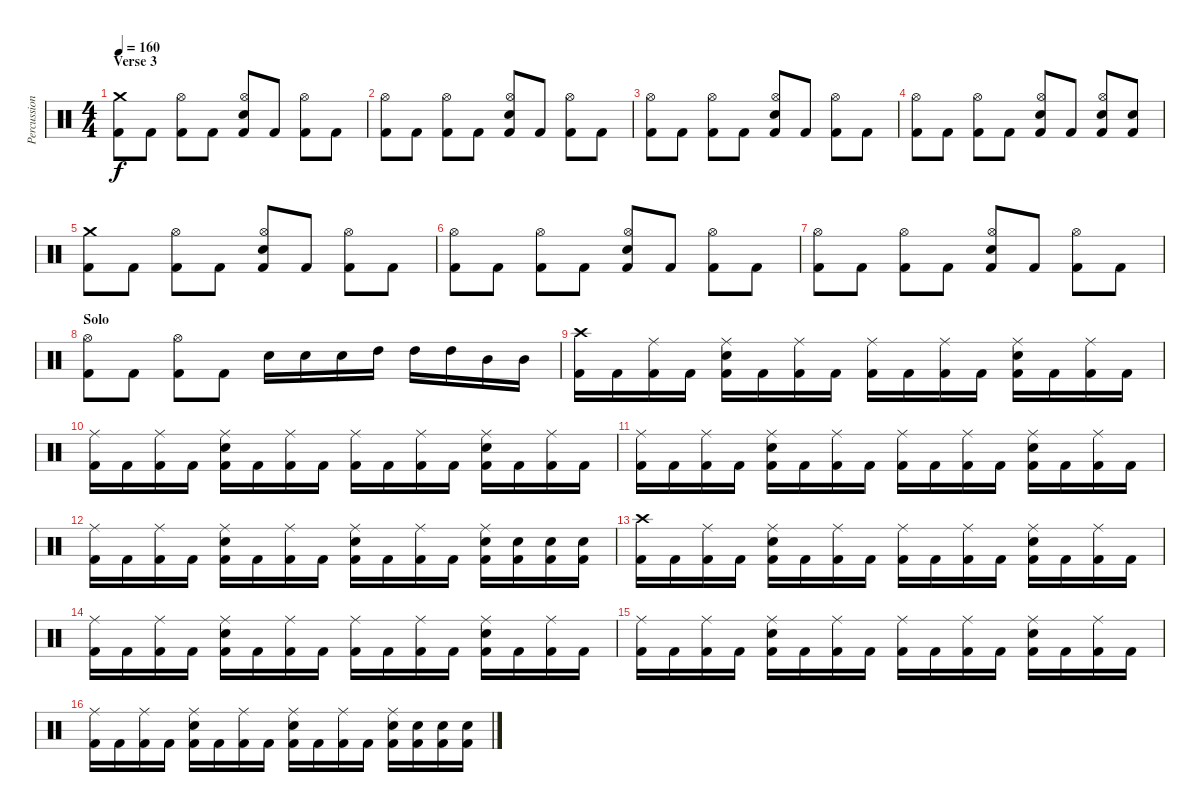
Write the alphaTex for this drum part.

\track ("Percussions" "Percussion") {instrument percussion}
\staff {score}
\articulation defaults
\ts (4 4)
\section ("" "Verse 3")
\tempo 160
\clef neutral
\ks c
("Crash medium (hit)" "Kick (hit) 2").8{dy f} "Kick (hit) 2".8 ("Hi-Hat (open)" "Kick (hit) 2").8 "Kick (hit) 2".8 ("Hi-Hat (open)" "Electric Snare (hit)" "Kick (hit) 2").8 "Kick (hit) 2".8 ("Hi-Hat (open)" "Kick (hit) 2").8 "Kick (hit) 2".8 |
("Hi-Hat (open)" "Kick (hit) 2").8 "Kick (hit) 2".8 ("Hi-Hat (open)" "Kick (hit) 2").8 "Kick (hit) 2".8 ("Hi-Hat (open)" "Electric Snare (hit)" "Kick (hit) 2").8 "Kick (hit) 2".8 ("Hi-Hat (open)" "Kick (hit) 2").8 "Kick (hit) 2".8 |
("Hi-Hat (open)" "Kick (hit) 2").8 "Kick (hit) 2".8 ("Hi-Hat (open)" "Kick (hit) 2").8 "Kick (hit) 2".8 ("Hi-Hat (open)" "Electric Snare (hit)" "Kick (hit) 2").8 "Kick (hit) 2".8 ("Hi-Hat (open)" "Kick (hit) 2").8 "Kick (hit) 2".8 |
("Hi-Hat (open)" "Kick (hit) 2").8 "Kick (hit) 2".8 ("Hi-Hat (open)" "Kick (hit) 2").8 "Kick (hit) 2".8 ("Hi-Hat (open)" "Electric Snare (hit)" "Kick (hit) 2").8 "Kick (hit) 2".8 ("Hi-Hat (open)" "Electric Snare (hit)" "Kick (hit) 2").8 ("Electric Snare (hit)" "Kick (hit) 2").8 |
("Crash medium (hit)" "Kick (hit) 2").8 "Kick (hit) 2".8 ("Hi-Hat (open)" "Kick (hit) 2").8 "Kick (hit) 2".8 ("Hi-Hat (open)" "Electric Snare (hit)" "Kick (hit) 2").8 "Kick (hit) 2".8 ("Hi-Hat (open)" "Kick (hit) 2").8 "Kick (hit) 2".8 |
("Hi-Hat (open)" "Kick (hit) 2").8 "Kick (hit) 2".8 ("Hi-Hat (open)" "Kick (hit) 2").8 "Kick (hit) 2".8 ("Hi-Hat (open)" "Electric Snare (hit)" "Kick (hit) 2").8 "Kick (hit) 2".8 ("Hi-Hat (open)" "Kick (hit) 2").8 "Kick (hit) 2".8 |
("Hi-Hat (open)" "Kick (hit) 2").8 "Kick (hit) 2".8 ("Hi-Hat (open)" "Kick (hit) 2").8 "Kick (hit) 2".8 ("Hi-Hat (open)" "Electric Snare (hit)" "Kick (hit) 2").8 "Kick (hit) 2".8 ("Hi-Hat (open)" "Kick (hit) 2").8 "Kick (hit) 2".8 |
\section ("" "Solo")
("Hi-Hat (open)" "Kick (hit) 2").8 "Kick (hit) 2".8 ("Hi-Hat (open)" "Kick (hit) 2").8 "Kick (hit) 2".8 "Electric Snare (hit)".16 "Electric Snare (hit)".16 "Electric Snare (hit)".16 "High Tom (hit)".16 "High Tom (hit)".16 "High Tom (hit)".16 "Mid Tom (hit)".16 "Mid Tom (hit)".16 |
("Crash high (hit)" "Kick (hit) 2").16 "Kick (hit) 2".16 ("Ride (middle)" "Kick (hit) 2").16 "Kick (hit) 2".16 ("Ride (middle)" "Electric Snare (hit)" "Kick (hit) 2").16 "Kick (hit) 2".16 ("Ride (middle)" "Kick (hit) 2").16 "Kick (hit) 2".16 ("Ride (middle)" "Kick (hit) 2").16 "Kick (hit) 2".16 ("Ride (middle)" "Kick (hit) 2").16 "Kick (hit) 2".16 ("Ride (middle)" "Electric Snare (hit)" "Kick (hit) 2").16 "Kick (hit) 2".16 ("Ride (middle)" "Kick (hit) 2").16 "Kick (hit) 2".16 |
("Ride (middle)" "Kick (hit) 2").16 "Kick (hit) 2".16 ("Ride (middle)" "Kick (hit) 2").16 "Kick (hit) 2".16 ("Ride (middle)" "Electric Snare (hit)" "Kick (hit) 2").16 "Kick (hit) 2".16 ("Ride (middle)" "Kick (hit) 2").16 "Kick (hit) 2".16 ("Ride (middle)" "Kick (hit) 2").16 "Kick (hit) 2".16 ("Ride (middle)" "Kick (hit) 2").16 "Kick (hit) 2".16 ("Ride (middle)" "Electric Snare (hit)" "Kick (hit) 2").16 "Kick (hit) 2".16 ("Ride (middle)" "Kick (hit) 2").16 "Kick (hit) 2".16 |
("Ride (middle)" "Kick (hit) 2").16 "Kick (hit) 2".16 ("Ride (middle)" "Kick (hit) 2").16 "Kick (hit) 2".16 ("Ride (middle)" "Electric Snare (hit)" "Kick (hit) 2").16 "Kick (hit) 2".16 ("Ride (middle)" "Kick (hit) 2").16 "Kick (hit) 2".16 ("Ride (middle)" "Kick (hit) 2").16 "Kick (hit) 2".16 ("Ride (middle)" "Kick (hit) 2").16 "Kick (hit) 2".16 ("Ride (middle)" "Electric Snare (hit)" "Kick (hit) 2").16 "Kick (hit) 2".16 ("Ride (middle)" "Kick (hit) 2").16 "Kick (hit) 2".16 |
("Ride (middle)" "Kick (hit) 2").16 "Kick (hit) 2".16 ("Ride (middle)" "Kick (hit) 2").16 "Kick (hit) 2".16 ("Ride (middle)" "Electric Snare (hit)" "Kick (hit) 2").16 "Kick (hit) 2".16 ("Ride (middle)" "Kick (hit) 2").16 "Kick (hit) 2".16 ("Ride (middle)" "Electric Snare (hit)" "Kick (hit) 2").16 "Kick (hit) 2".16 ("Ride (middle)" "Kick (hit) 2").16 "Kick (hit) 2".16 ("Ride (middle)" "Electric Snare (hit)" "Kick (hit) 2").16 ("Electric Snare (hit)" "Kick (hit) 2").16 ("Electric Snare (hit)" "Kick (hit) 2").16 ("Electric Snare (hit)" "Kick (hit) 2").16 |
("Crash high (hit)" "Kick (hit) 2").16 "Kick (hit) 2".16 ("Ride (middle)" "Kick (hit) 2").16 "Kick (hit) 2".16 ("Ride (middle)" "Electric Snare (hit)" "Kick (hit) 2").16 "Kick (hit) 2".16 ("Ride (middle)" "Kick (hit) 2").16 "Kick (hit) 2".16 ("Ride (middle)" "Kick (hit) 2").16 "Kick (hit) 2".16 ("Ride (middle)" "Kick (hit) 2").16 "Kick (hit) 2".16 ("Ride (middle)" "Electric Snare (hit)" "Kick (hit) 2").16 "Kick (hit) 2".16 ("Ride (middle)" "Kick (hit) 2").16 "Kick (hit) 2".16 |
("Ride (middle)" "Kick (hit) 2").16 "Kick (hit) 2".16 ("Ride (middle)" "Kick (hit) 2").16 "Kick (hit) 2".16 ("Ride (middle)" "Electric Snare (hit)" "Kick (hit) 2").16 "Kick (hit) 2".16 ("Ride (middle)" "Kick (hit) 2").16 "Kick (hit) 2".16 ("Ride (middle)" "Kick (hit) 2").16 "Kick (hit) 2".16 ("Ride (middle)" "Kick (hit) 2").16 "Kick (hit) 2".16 ("Ride (middle)" "Electric Snare (hit)" "Kick (hit) 2").16 "Kick (hit) 2".16 ("Ride (middle)" "Kick (hit) 2").16 "Kick (hit) 2".16 |
("Ride (middle)" "Kick (hit) 2").16 "Kick (hit) 2".16 ("Ride (middle)" "Kick (hit) 2").16 "Kick (hit) 2".16 ("Ride (middle)" "Electric Snare (hit)" "Kick (hit) 2").16 "Kick (hit) 2".16 ("Ride (middle)" "Kick (hit) 2").16 "Kick (hit) 2".16 ("Ride (middle)" "Kick (hit) 2").16 "Kick (hit) 2".16 ("Ride (middle)" "Kick (hit) 2").16 "Kick (hit) 2".16 ("Ride (middle)" "Electric Snare (hit)" "Kick (hit) 2").16 "Kick (hit) 2".16 ("Ride (middle)" "Kick (hit) 2").16 "Kick (hit) 2".16 |
("Ride (middle)" "Kick (hit) 2").16 "Kick (hit) 2".16 ("Ride (middle)" "Kick (hit) 2").16 "Kick (hit) 2".16 ("Ride (middle)" "Electric Snare (hit)" "Kick (hit) 2").16 "Kick (hit) 2".16 ("Ride (middle)" "Kick (hit) 2").16 "Kick (hit) 2".16 ("Ride (middle)" "Electric Snare (hit)" "Kick (hit) 2").16 "Kick (hit) 2".16 ("Ride (middle)" "Kick (hit) 2").16 "Kick (hit) 2".16 ("Ride (middle)" "Electric Snare (hit)" "Kick (hit) 2").16 ("Electric Snare (hit)" "Kick (hit) 2").16 ("Electric Snare (hit)" "Kick (hit) 2").16 ("Electric Snare (hit)" "Kick (hit) 2").16
